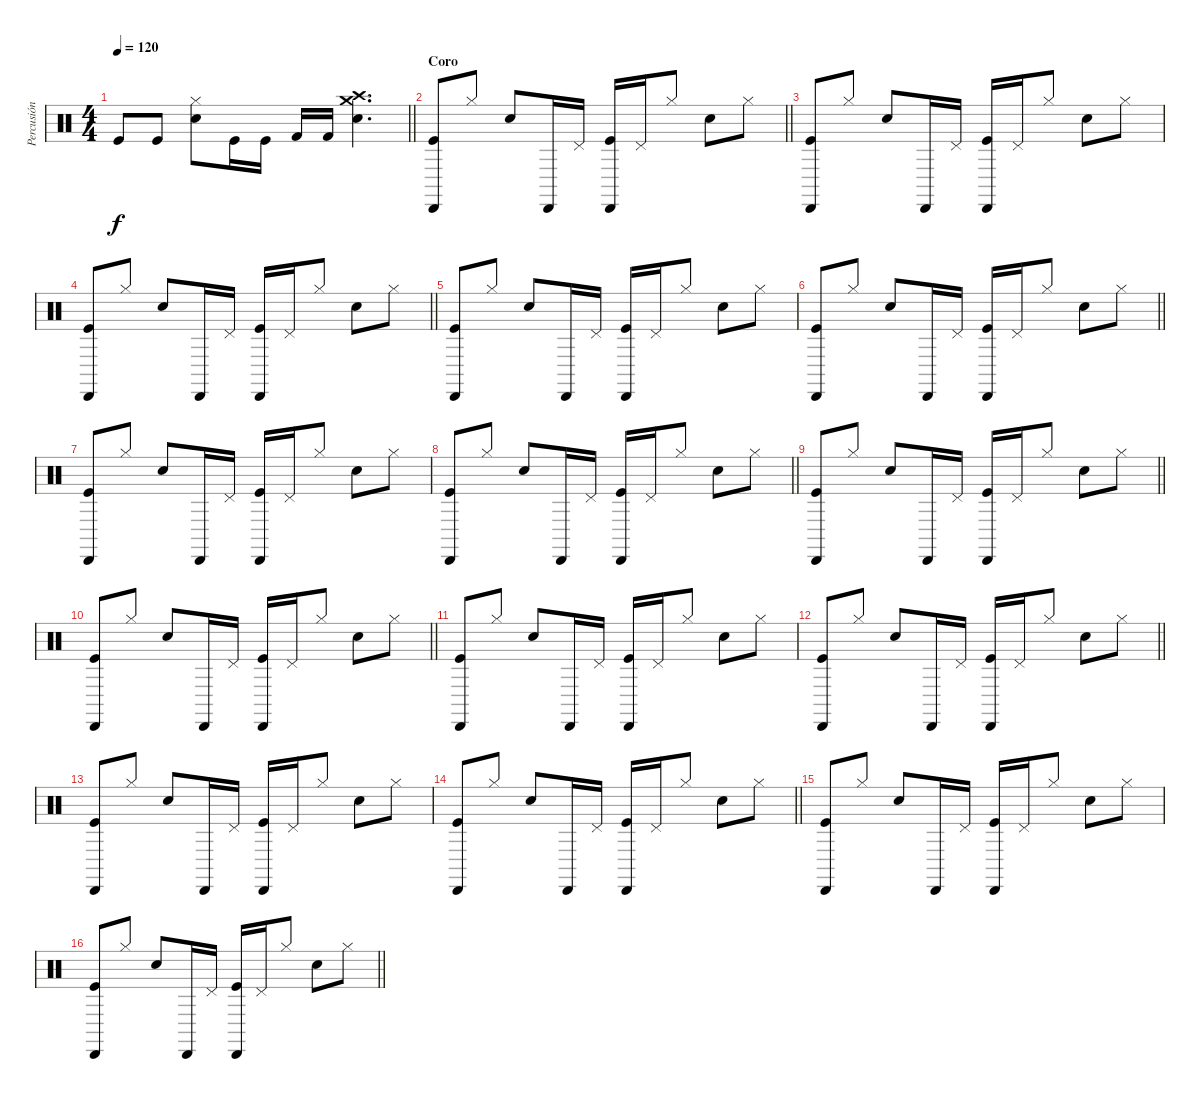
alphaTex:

\track ("Percusión" "Percusión") {instrument percussion}
\staff {score}
\articulation defaults
\ts (4 4)
\tempo 120
\clef neutral
\barLineRight lightlight
\ks c "Kick (hit)".8{dy f} "Kick (hit)".8
("Hi-Hat (closed)" "Electric Snare (hit)").8 "Kick (hit)".16 "Kick (hit)".16 "Kick (hit) 2".16 "Kick (hit) 2".16 ("Crash medium (hit)" "Crash high (hit)" "Electric Snare (hit)").4{d} |
\section ("" "Coro")
\barLineRight lightlight
("Kick (hit)" "Cabasa (hit)").8 "Hi-Hat (closed)".8 "Electric Snare (hit)".8 "Cabasa (hit)".16 "Pedal Hi-Hat (hit)".16 ("Kick (hit)" "Cabasa (hit)").16 "Pedal Hi-Hat (hit)".16 "Hi-Hat (closed)".8 "Electric Snare (hit)".8 "Hi-Hat (closed)".8 |
("Kick (hit)" "Cabasa (hit)").8 "Hi-Hat (closed)".8 "Electric Snare (hit)".8 "Cabasa (hit)".16 "Pedal Hi-Hat (hit)".16 ("Kick (hit)" "Cabasa (hit)").16 "Pedal Hi-Hat (hit)".16 "Hi-Hat (closed)".8 "Electric Snare (hit)".8 "Hi-Hat (closed)".8 |
\barLineRight lightlight
("Kick (hit)" "Cabasa (hit)").8 "Hi-Hat (closed)".8 "Electric Snare (hit)".8 "Cabasa (hit)".16 "Pedal Hi-Hat (hit)".16 ("Kick (hit)" "Cabasa (hit)").16 "Pedal Hi-Hat (hit)".16 "Hi-Hat (closed)".8 "Electric Snare (hit)".8 "Hi-Hat (closed)".8 |
("Kick (hit)" "Cabasa (hit)").8 "Hi-Hat (closed)".8 "Electric Snare (hit)".8 "Cabasa (hit)".16 "Pedal Hi-Hat (hit)".16 ("Kick (hit)" "Cabasa (hit)").16 "Pedal Hi-Hat (hit)".16 "Hi-Hat (closed)".8 "Electric Snare (hit)".8 "Hi-Hat (closed)".8 |
\barLineRight lightlight
("Kick (hit)" "Cabasa (hit)").8 "Hi-Hat (closed)".8 "Electric Snare (hit)".8 "Cabasa (hit)".16 "Pedal Hi-Hat (hit)".16 ("Kick (hit)" "Cabasa (hit)").16 "Pedal Hi-Hat (hit)".16 "Hi-Hat (closed)".8 "Electric Snare (hit)".8 "Hi-Hat (closed)".8 |
("Kick (hit)" "Cabasa (hit)").8 "Hi-Hat (closed)".8 "Electric Snare (hit)".8 "Cabasa (hit)".16 "Pedal Hi-Hat (hit)".16 ("Kick (hit)" "Cabasa (hit)").16 "Pedal Hi-Hat (hit)".16 "Hi-Hat (closed)".8 "Electric Snare (hit)".8 "Hi-Hat (closed)".8 |
\barLineRight lightlight
("Kick (hit)" "Cabasa (hit)").8 "Hi-Hat (closed)".8 "Electric Snare (hit)".8 "Cabasa (hit)".16 "Pedal Hi-Hat (hit)".16 ("Kick (hit)" "Cabasa (hit)").16 "Pedal Hi-Hat (hit)".16 "Hi-Hat (closed)".8 "Electric Snare (hit)".8 "Hi-Hat (closed)".8 |
\barLineRight lightlight
("Kick (hit)" "Cabasa (hit)").8 "Hi-Hat (closed)".8 "Electric Snare (hit)".8 "Cabasa (hit)".16 "Pedal Hi-Hat (hit)".16 ("Kick (hit)" "Cabasa (hit)").16 "Pedal Hi-Hat (hit)".16 "Hi-Hat (closed)".8 "Electric Snare (hit)".8 "Hi-Hat (closed)".8 |
\section ("" "")
\barLineRight lightlight
("Kick (hit)" "Cabasa (hit)").8 "Hi-Hat (closed)".8 "Electric Snare (hit)".8 "Cabasa (hit)".16 "Pedal Hi-Hat (hit)".16 ("Kick (hit)" "Cabasa (hit)").16 "Pedal Hi-Hat (hit)".16 "Hi-Hat (closed)".8 "Electric Snare (hit)".8 "Hi-Hat (closed)".8 |
("Kick (hit)" "Cabasa (hit)").8 "Hi-Hat (closed)".8 "Electric Snare (hit)".8 "Cabasa (hit)".16 "Pedal Hi-Hat (hit)".16 ("Kick (hit)" "Cabasa (hit)").16 "Pedal Hi-Hat (hit)".16 "Hi-Hat (closed)".8 "Electric Snare (hit)".8 "Hi-Hat (closed)".8 |
\barLineRight lightlight
("Kick (hit)" "Cabasa (hit)").8 "Hi-Hat (closed)".8 "Electric Snare (hit)".8 "Cabasa (hit)".16 "Pedal Hi-Hat (hit)".16 ("Kick (hit)" "Cabasa (hit)").16 "Pedal Hi-Hat (hit)".16 "Hi-Hat (closed)".8 "Electric Snare (hit)".8 "Hi-Hat (closed)".8 |
("Kick (hit)" "Cabasa (hit)").8 "Hi-Hat (closed)".8 "Electric Snare (hit)".8 "Cabasa (hit)".16 "Pedal Hi-Hat (hit)".16 ("Kick (hit)" "Cabasa (hit)").16 "Pedal Hi-Hat (hit)".16 "Hi-Hat (closed)".8 "Electric Snare (hit)".8 "Hi-Hat (closed)".8 |
\barLineRight lightlight
("Kick (hit)" "Cabasa (hit)").8 "Hi-Hat (closed)".8 "Electric Snare (hit)".8 "Cabasa (hit)".16 "Pedal Hi-Hat (hit)".16 ("Kick (hit)" "Cabasa (hit)").16 "Pedal Hi-Hat (hit)".16 "Hi-Hat (closed)".8 "Electric Snare (hit)".8 "Hi-Hat (closed)".8 |
("Kick (hit)" "Cabasa (hit)").8 "Hi-Hat (closed)".8 "Electric Snare (hit)".8 "Cabasa (hit)".16 "Pedal Hi-Hat (hit)".16 ("Kick (hit)" "Cabasa (hit)").16 "Pedal Hi-Hat (hit)".16 "Hi-Hat (closed)".8 "Electric Snare (hit)".8 "Hi-Hat (closed)".8 |
\barLineRight lightlight
("Kick (hit)" "Cabasa (hit)").8 "Hi-Hat (closed)".8 "Electric Snare (hit)".8 "Cabasa (hit)".16 "Pedal Hi-Hat (hit)".16 ("Kick (hit)" "Cabasa (hit)").16 "Pedal Hi-Hat (hit)".16 "Hi-Hat (closed)".8 "Electric Snare (hit)".8 "Hi-Hat (closed)".8
